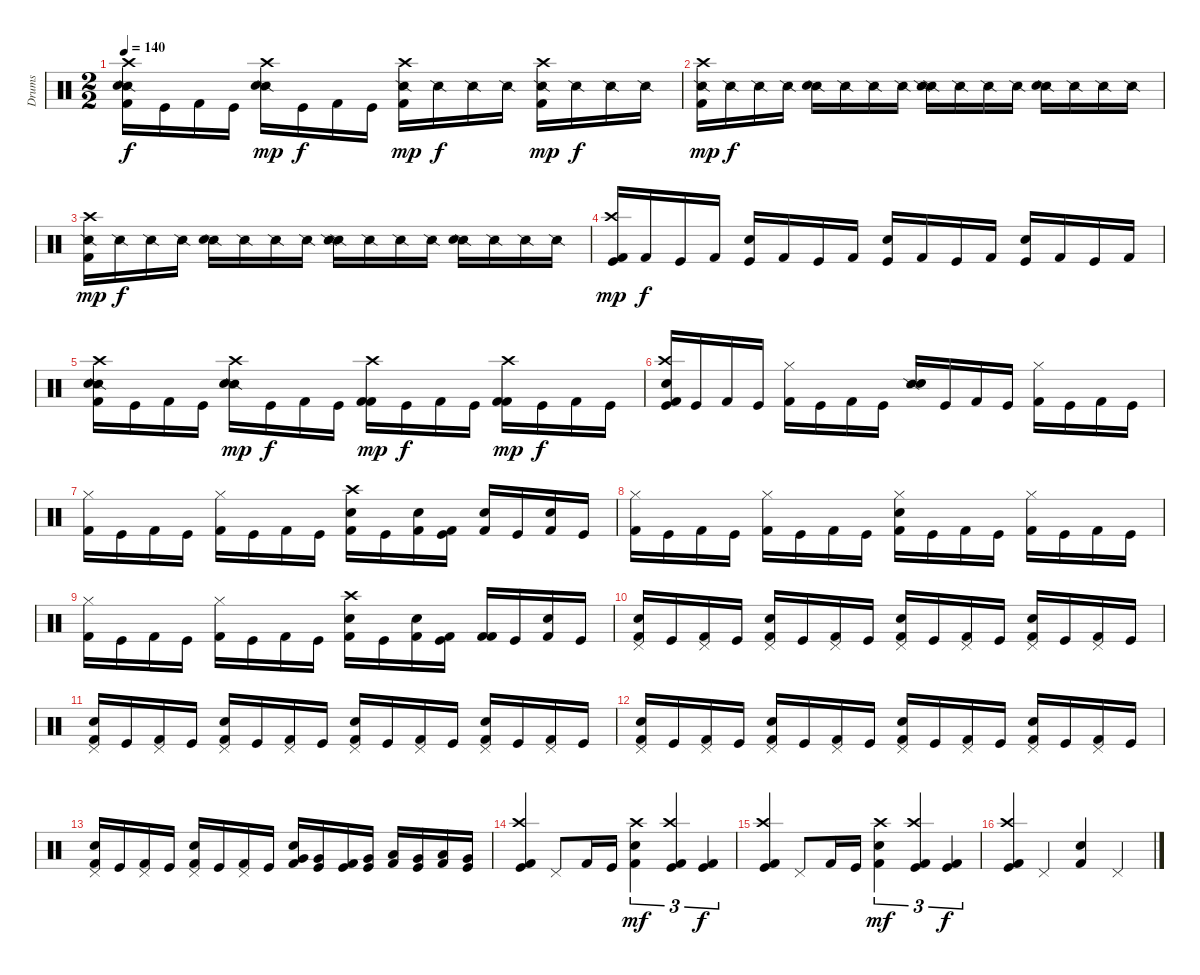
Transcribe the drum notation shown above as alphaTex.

\track ("Drums" "Drums") {instrument percussion}
\staff {score}
\articulation defaults
\ts (2 2)
\tempo 140
\clef neutral
\ks c
("Snare (side stick) 2" "Snare (hit) 2" "Kick (hit) 2" "Crash high (hit)").16{dy f} "Kick (hit)".16 "Kick (hit) 2".16 "Kick (hit)".16 ("Snare (side stick) 2" "Snare (hit) 2" "Crash high (hit)").16{dy mp} "Kick (hit)".16{dy f} "Kick (hit) 2".16 "Kick (hit)".16 ("Snare (side stick) 2" "Kick (hit) 2" "Crash high (hit)").16{dy mp} "Snare (side stick) 2".16{dy f} "Snare (side stick) 2".16 "Snare (side stick) 2".16 ("Snare (side stick) 2" "Kick (hit) 2" "Crash high (hit)").16{dy mp} "Snare (side stick) 2".16{dy f} "Snare (side stick) 2".16 "Snare (side stick) 2".16 |
("Snare (side stick) 2" "Kick (hit) 2" "Crash high (hit)").16{dy mp} "Snare (side stick) 2".16{dy f} "Snare (side stick) 2".16 "Snare (side stick) 2".16 ("Snare (side stick) 2" "Snare (hit) 2").16 "Snare (side stick) 2".16 "Snare (side stick) 2".16 "Snare (side stick) 2".16 ("Snare (side stick) 2" "Snare (side stick) 2").16 "Snare (side stick) 2".16 "Snare (side stick) 2".16 "Snare (side stick) 2".16 ("Snare (side stick) 2" "Snare (hit) 2").16 "Snare (side stick) 2".16 "Snare (side stick) 2".16 "Snare (side stick) 2".16 |
("Snare (side stick) 2" "Kick (hit) 2" "Crash high (hit)").16{dy mp} "Snare (side stick) 2".16{dy f} "Snare (side stick) 2".16 "Snare (side stick) 2".16 ("Snare (side stick) 2" "Snare (hit) 2").16 "Snare (side stick) 2".16 "Snare (side stick) 2".16 "Snare (side stick) 2".16 ("Snare (side stick) 2" "Snare (side stick) 2").16 "Snare (side stick) 2".16 "Snare (side stick) 2".16 "Snare (side stick) 2".16 ("Snare (side stick) 2" "Snare (hit) 2").16 "Snare (side stick) 2".16 "Snare (side stick) 2".16 "Snare (side stick) 2".16 |
("Kick (hit)" "Kick (hit) 2" "Crash high (hit)").16{dy mp} "Kick (hit) 2".16{dy f} "Kick (hit)".16 "Kick (hit) 2".16 ("Kick (hit)" "Snare (hit) 2").16 "Kick (hit) 2".16 "Kick (hit)".16 "Kick (hit) 2".16 ("Kick (hit)" "Snare (hit) 2").16 "Kick (hit) 2".16 "Kick (hit)".16 "Kick (hit) 2".16 ("Kick (hit)" "Snare (hit) 2").16 "Kick (hit) 2".16 "Kick (hit)".16 "Kick (hit) 2".16 |
("Snare (side stick) 2" "Snare (hit) 2" "Kick (hit) 2" "Crash high (hit)").16 "Kick (hit)".16 "Kick (hit) 2".16 "Kick (hit)".16 ("Snare (side stick) 2" "Snare (hit) 2" "Crash high (hit)").16{dy mp} "Kick (hit)".16{dy f} "Kick (hit) 2".16 "Kick (hit)".16 ("Kick (hit) 2" "Kick (hit) 2" "Crash high (hit)").16{dy mp} "Kick (hit)".16{dy f} "Kick (hit) 2".16 "Kick (hit)".16 ("Kick (hit) 2" "Kick (hit) 2" "Crash high (hit)").16{dy mp} "Kick (hit)".16{dy f} "Kick (hit) 2".16 "Kick (hit)".16 |
("Kick (hit)" "Kick (hit) 2" "Crash high (hit)" "Snare (hit) 2").16 "Kick (hit)".16 "Kick (hit) 2".16 "Kick (hit)".16 ("Kick (hit) 2" "Hi-Hat (closed)").16 "Kick (hit)".16 "Kick (hit) 2".16 "Kick (hit)".16 ("Snare (side stick) 2" "Snare (hit) 2").16 "Kick (hit)".16 "Kick (hit) 2".16 "Kick (hit)".16 ("Kick (hit) 2" "Hi-Hat (closed)").16 "Kick (hit)".16 "Kick (hit) 2".16 "Kick (hit)".16 |
("Kick (hit) 2" "Hi-Hat (closed)").16 "Kick (hit)".16 "Kick (hit) 2".16 "Kick (hit)".16 ("Kick (hit) 2" "Hi-Hat (closed)").16 "Kick (hit)".16 "Kick (hit) 2".16 "Kick (hit)".16 ("Kick (hit) 2" "Snare (hit) 2" "Crash high (hit)").16 "Kick (hit)".16 ("Kick (hit) 2" "Snare (hit) 2").16 ("Kick (hit)" "Kick (hit) 2").16 ("Kick (hit) 2" "Snare (hit) 2").16 "Kick (hit)".16 ("Kick (hit) 2" "Snare (hit) 2").16 "Kick (hit)".16 |
("Kick (hit) 2" "Hi-Hat (closed)").16 "Kick (hit)".16 "Kick (hit) 2".16 "Kick (hit)".16 ("Kick (hit) 2" "Hi-Hat (closed)").16 "Kick (hit)".16 "Kick (hit) 2".16 "Kick (hit)".16 ("Kick (hit) 2" "Hi-Hat (closed)" "Snare (hit) 2").16 "Kick (hit)".16 "Kick (hit) 2".16 "Kick (hit)".16 ("Kick (hit) 2" "Hi-Hat (closed)").16 "Kick (hit)".16 "Kick (hit) 2".16 "Kick (hit)".16 |
("Kick (hit) 2" "Hi-Hat (closed)").16 "Kick (hit)".16 "Kick (hit) 2".16 "Kick (hit)".16 ("Kick (hit) 2" "Hi-Hat (closed)").16 "Kick (hit)".16 "Kick (hit) 2".16 "Kick (hit)".16 ("Kick (hit) 2" "Snare (hit) 2" "Crash high (hit)").16 "Kick (hit)".16 ("Kick (hit) 2" "Snare (hit) 2").16 ("Kick (hit)" "Kick (hit) 2").16 ("Kick (hit) 2" "Kick (hit) 2").16 "Kick (hit)".16 ("Kick (hit) 2" "Snare (hit) 2").16 "Kick (hit)".16 |
("Kick (hit) 2" "Snare (hit) 2" "Pedal Hi-Hat (hit)").16 "Kick (hit)".16 ("Kick (hit) 2" "Pedal Hi-Hat (hit)").16 "Kick (hit)".16 ("Kick (hit) 2" "Snare (hit) 2" "Pedal Hi-Hat (hit)").16 "Kick (hit)".16 ("Kick (hit) 2" "Pedal Hi-Hat (hit)").16 "Kick (hit)".16 ("Kick (hit) 2" "Snare (hit) 2" "Pedal Hi-Hat (hit)").16 "Kick (hit)".16 ("Kick (hit) 2" "Pedal Hi-Hat (hit)").16 "Kick (hit)".16 ("Kick (hit) 2" "Snare (hit) 2" "Pedal Hi-Hat (hit)").16 "Kick (hit)".16 ("Kick (hit) 2" "Pedal Hi-Hat (hit)").16 "Kick (hit)".16 |
("Kick (hit) 2" "Snare (hit) 2" "Pedal Hi-Hat (hit)").16 "Kick (hit)".16 ("Kick (hit) 2" "Pedal Hi-Hat (hit)").16 "Kick (hit)".16 ("Kick (hit) 2" "Snare (hit) 2" "Pedal Hi-Hat (hit)").16 "Kick (hit)".16 ("Kick (hit) 2" "Pedal Hi-Hat (hit)").16 "Kick (hit)".16 ("Kick (hit) 2" "Snare (hit) 2" "Pedal Hi-Hat (hit)").16 "Kick (hit)".16 ("Kick (hit) 2" "Pedal Hi-Hat (hit)").16 "Kick (hit)".16 ("Kick (hit) 2" "Snare (hit) 2" "Pedal Hi-Hat (hit)").16 "Kick (hit)".16 ("Kick (hit) 2" "Pedal Hi-Hat (hit)").16 "Kick (hit)".16 |
("Kick (hit) 2" "Snare (hit) 2" "Pedal Hi-Hat (hit)").16 "Kick (hit)".16 ("Kick (hit) 2" "Pedal Hi-Hat (hit)").16 "Kick (hit)".16 ("Kick (hit) 2" "Snare (hit) 2" "Pedal Hi-Hat (hit)").16 "Kick (hit)".16 ("Kick (hit) 2" "Pedal Hi-Hat (hit)").16 "Kick (hit)".16 ("Kick (hit) 2" "Snare (hit) 2" "Pedal Hi-Hat (hit)").16 "Kick (hit)".16 ("Kick (hit) 2" "Pedal Hi-Hat (hit)").16 "Kick (hit)".16 ("Kick (hit) 2" "Snare (hit) 2" "Pedal Hi-Hat (hit)").16 "Kick (hit)".16 ("Kick (hit) 2" "Pedal Hi-Hat (hit)").16 "Kick (hit)".16 |
("Kick (hit) 2" "Snare (hit) 2" "Pedal Hi-Hat (hit)").16 "Kick (hit)".16 ("Kick (hit) 2" "Pedal Hi-Hat (hit)").16 "Kick (hit)".16 ("Kick (hit) 2" "Snare (hit) 2" "Pedal Hi-Hat (hit)").16 "Kick (hit)".16 ("Kick (hit) 2" "Pedal Hi-Hat (hit)").16 "Kick (hit)".16 ("Kick (hit) 2" "Snare (hit) 2" "Very Low Tom (hit)").16 ("Kick (hit)" "Very Low Tom (hit)").16 ("Kick (hit) 2" "Kick (hit)").16 ("Kick (hit)" "Very Low Tom (hit)").16 ("Kick (hit) 2" "Low Tom (hit)").16 ("Kick (hit)" "Very Low Tom (hit)").16 ("Kick (hit) 2" "Low Tom (hit)").16 ("Kick (hit)" "Very Low Tom (hit)").16 |
("Kick (hit) 2" "Crash high (hit)" "Kick (hit)").4 "Pedal Hi-Hat (hit)".8 "Kick (hit) 2".16 "Kick (hit)".16 ("Kick (hit) 2" "Snare (hit) 2" "Crash high (hit)").4{tu (3 2) dy mf} ("Kick (hit) 2" "Kick (hit)" "Crash high (hit)").4{tu (3 2)} ("Kick (hit) 2" "Kick (hit)").4{tu (3 2) dy f} |
("Kick (hit) 2" "Crash high (hit)" "Kick (hit)").4 "Pedal Hi-Hat (hit)".8 "Kick (hit) 2".16 "Kick (hit)".16 ("Kick (hit) 2" "Snare (hit) 2" "Crash high (hit)").4{tu (3 2) dy mf} ("Kick (hit) 2" "Kick (hit)" "Crash high (hit)").4{tu (3 2)} ("Kick (hit) 2" "Kick (hit)").4{tu (3 2) dy f} |
("Kick (hit) 2" "Kick (hit)" "Crash high (hit)").4 "Pedal Hi-Hat (hit)".4 ("Kick (hit) 2" "Snare (hit) 2").4 "Pedal Hi-Hat (hit)".4
